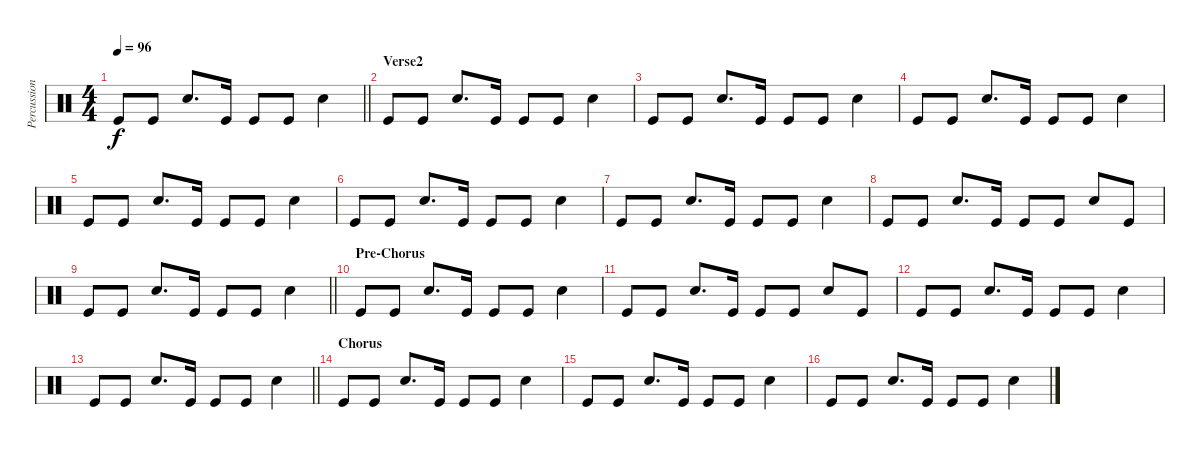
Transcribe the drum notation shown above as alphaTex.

\track ("Percussion" "Percussion") {instrument percussion}
\staff {score}
\articulation defaults
\ts (4 4)
\tempo 96
\clef neutral
\barLineRight lightlight
\ks c "Kick (hit)".8{dy f} "Kick (hit)".8 "Electric Snare (hit)".8{d} "Kick (hit)".16 "Kick (hit)".8 "Kick (hit)".8 "Electric Snare (hit)".4
|
\section ("" "Verse2")
"Kick (hit)".8 "Kick (hit)".8 "Electric Snare (hit)".8{d} "Kick (hit)".16 "Kick (hit)".8 "Kick (hit)".8 "Electric Snare (hit)".4 |
"Kick (hit)".8 "Kick (hit)".8 "Electric Snare (hit)".8{d} "Kick (hit)".16 "Kick (hit)".8 "Kick (hit)".8 "Electric Snare (hit)".4 |
"Kick (hit)".8 "Kick (hit)".8 "Electric Snare (hit)".8{d} "Kick (hit)".16 "Kick (hit)".8 "Kick (hit)".8 "Electric Snare (hit)".4 |
"Kick (hit)".8 "Kick (hit)".8 "Electric Snare (hit)".8{d} "Kick (hit)".16 "Kick (hit)".8 "Kick (hit)".8 "Electric Snare (hit)".4 |
"Kick (hit)".8 "Kick (hit)".8 "Electric Snare (hit)".8{d} "Kick (hit)".16 "Kick (hit)".8 "Kick (hit)".8 "Electric Snare (hit)".4 |
"Kick (hit)".8 "Kick (hit)".8 "Electric Snare (hit)".8{d} "Kick (hit)".16 "Kick (hit)".8 "Kick (hit)".8 "Electric Snare (hit)".4 |
"Kick (hit)".8 "Kick (hit)".8 "Electric Snare (hit)".8{d} "Kick (hit)".16 "Kick (hit)".8 "Kick (hit)".8 "Electric Snare (hit)".8 "Kick (hit)".8 |
\barLineRight lightlight "Kick (hit)".8 "Kick (hit)".8 "Electric Snare (hit)".8{d} "Kick (hit)".16 "Kick (hit)".8 "Kick (hit)".8 "Electric Snare (hit)".4
|
\section ("" "Pre-Chorus")
"Kick (hit)".8 "Kick (hit)".8 "Electric Snare (hit)".8{d} "Kick (hit)".16 "Kick (hit)".8 "Kick (hit)".8 "Electric Snare (hit)".4 |
"Kick (hit)".8 "Kick (hit)".8 "Electric Snare (hit)".8{d} "Kick (hit)".16 "Kick (hit)".8 "Kick (hit)".8 "Electric Snare (hit)".8 "Kick (hit)".8 |
"Kick (hit)".8 "Kick (hit)".8 "Electric Snare (hit)".8{d} "Kick (hit)".16 "Kick (hit)".8 "Kick (hit)".8 "Electric Snare (hit)".4 |
\barLineRight lightlight "Kick (hit)".8 "Kick (hit)".8 "Electric Snare (hit)".8{d} "Kick (hit)".16 "Kick (hit)".8 "Kick (hit)".8 "Electric Snare (hit)".4
|
\section ("" "Chorus")
"Kick (hit)".8 "Kick (hit)".8 "Electric Snare (hit)".8{d} "Kick (hit)".16 "Kick (hit)".8 "Kick (hit)".8 "Electric Snare (hit)".4 |
"Kick (hit)".8 "Kick (hit)".8 "Electric Snare (hit)".8{d} "Kick (hit)".16 "Kick (hit)".8 "Kick (hit)".8 "Electric Snare (hit)".4 |
"Kick (hit)".8 "Kick (hit)".8 "Electric Snare (hit)".8{d} "Kick (hit)".16 "Kick (hit)".8 "Kick (hit)".8 "Electric Snare (hit)".4
